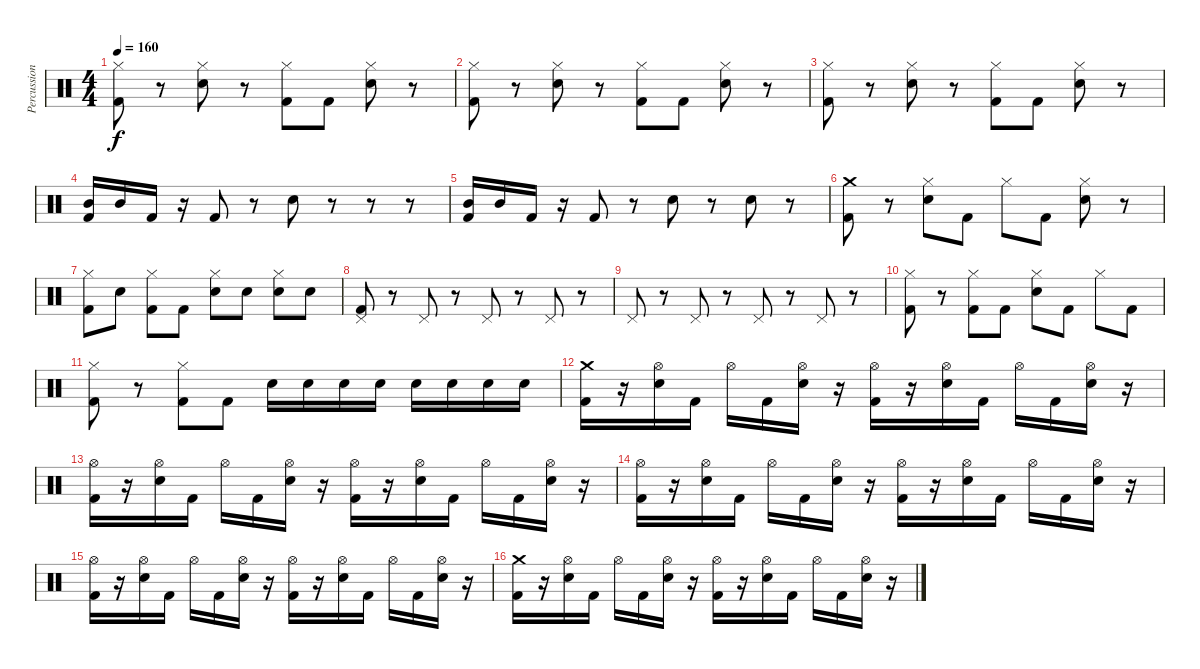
\track ("Percussion" "Percussion") {instrument percussion}
\staff {score}
\articulation defaults
\ts (4 4)
\tempo 160
\clef neutral
\ks c
("Hi-Hat (closed)" "Kick (hit) 2").8{dy f} r.8 ("Hi-Hat (closed)" "Snare (hit) 2").8 r.8 ("Hi-Hat (closed)" "Kick (hit) 2").8 "Kick (hit) 2".8 ("Hi-Hat (closed)" "Snare (hit) 2").8 r.8 |
("Hi-Hat (closed)" "Kick (hit) 2").8 r.8 ("Hi-Hat (closed)" "Snare (hit) 2").8 r.8 ("Hi-Hat (closed)" "Kick (hit) 2").8 "Kick (hit) 2".8 ("Hi-Hat (closed)" "Snare (hit) 2").8 r.8 |
("Hi-Hat (closed)" "Kick (hit) 2").8 r.8 ("Hi-Hat (closed)" "Snare (hit) 2").8 r.8 ("Hi-Hat (closed)" "Kick (hit) 2").8 "Kick (hit) 2".8 ("Hi-Hat (closed)" "Snare (hit) 2").8 r.8 |
("Kick (hit) 2" "Mid Tom (hit)").16 "Mid Tom (hit)".16 "Kick (hit) 2".16 r.16 "Kick (hit) 2".8 r.8 "Snare (hit) 2".8 r.8 r.8 r.8 |
("Kick (hit) 2" "Mid Tom (hit)").16 "Mid Tom (hit)".16 "Kick (hit) 2".16 r.16 "Kick (hit) 2".8 r.8 "Snare (hit) 2".8 r.8 "Snare (hit) 2".8 r.8 |
("Crash medium (hit)" "Kick (hit) 2").8 r.8 ("Hi-Hat (closed)" "Snare (hit) 2").8 "Kick (hit) 2".8 "Hi-Hat (closed)".8 "Kick (hit) 2".8 ("Hi-Hat (closed)" "Snare (hit) 2").8 r.8 |
("Hi-Hat (closed)" "Kick (hit) 2").8 "Snare (hit) 2".8 ("Hi-Hat (closed)" "Kick (hit) 2").8 "Kick (hit) 2".8 ("Hi-Hat (closed)" "Snare (hit) 2").8 "Snare (hit) 2".8 ("Hi-Hat (closed)" "Snare (hit) 2").8 "Snare (hit) 2".8 |
("Pedal Hi-Hat (hit)" "Kick (hit) 2").8 r.8 "Pedal Hi-Hat (hit)".8 r.8 "Pedal Hi-Hat (hit)".8 r.8 "Pedal Hi-Hat (hit)".8 r.8 |
"Pedal Hi-Hat (hit)".8 r.8 "Pedal Hi-Hat (hit)".8 r.8 "Pedal Hi-Hat (hit)".8 r.8 "Pedal Hi-Hat (hit)".8 r.8 |
("Hi-Hat (closed)" "Kick (hit) 2").8 r.8 ("Hi-Hat (closed)" "Kick (hit) 2").8 "Kick (hit) 2".8 ("Hi-Hat (closed)" "Snare (hit) 2").8 "Kick (hit) 2".8 "Hi-Hat (closed)".8 "Kick (hit) 2".8 |
("Hi-Hat (closed)" "Kick (hit) 2").8 r.8 ("Hi-Hat (closed)" "Kick (hit) 2").8 "Kick (hit) 2".8 "Snare (hit) 2".16 "Snare (hit) 2".16 "Snare (hit) 2".16 "Snare (hit) 2".16 "Snare (hit) 2".16 "Snare (hit) 2".16 "Snare (hit) 2".16 "Snare (hit) 2".16 |
("Crash medium (hit)" "Kick (hit) 2").16 r.16 ("Hi-Hat (open)" "Snare (hit) 2").16 "Kick (hit) 2".16 "Hi-Hat (open)".16 "Kick (hit) 2".16 ("Hi-Hat (open)" "Snare (hit) 2").16 r.16 ("Hi-Hat (open)" "Kick (hit) 2").16 r.16 ("Hi-Hat (open)" "Snare (hit) 2").16 "Kick (hit) 2".16 "Hi-Hat (open)".16 "Kick (hit) 2".16 ("Hi-Hat (open)" "Snare (hit) 2").16 r.16 |
("Hi-Hat (open)" "Kick (hit) 2").16 r.16 ("Hi-Hat (open)" "Snare (hit) 2").16 "Kick (hit) 2".16 "Hi-Hat (open)".16 "Kick (hit) 2".16 ("Hi-Hat (open)" "Snare (hit) 2").16 r.16 ("Hi-Hat (open)" "Kick (hit) 2").16 r.16 ("Hi-Hat (open)" "Snare (hit) 2").16 "Kick (hit) 2".16 "Hi-Hat (open)".16 "Kick (hit) 2".16 ("Hi-Hat (open)" "Snare (hit) 2").16 r.16 |
("Hi-Hat (open)" "Kick (hit) 2").16 r.16 ("Hi-Hat (open)" "Snare (hit) 2").16 "Kick (hit) 2".16 "Hi-Hat (open)".16 "Kick (hit) 2".16 ("Hi-Hat (open)" "Snare (hit) 2").16 r.16 ("Hi-Hat (open)" "Kick (hit) 2").16 r.16 ("Hi-Hat (open)" "Snare (hit) 2").16 "Kick (hit) 2".16 "Hi-Hat (open)".16 "Kick (hit) 2".16 ("Hi-Hat (open)" "Snare (hit) 2").16 r.16 |
("Hi-Hat (open)" "Kick (hit) 2").16 r.16 ("Hi-Hat (open)" "Snare (hit) 2").16 "Kick (hit) 2".16 "Hi-Hat (open)".16 "Kick (hit) 2".16 ("Hi-Hat (open)" "Snare (hit) 2").16 r.16 ("Hi-Hat (open)" "Kick (hit) 2").16 r.16 ("Hi-Hat (open)" "Snare (hit) 2").16 "Kick (hit) 2".16 "Hi-Hat (open)".16 "Kick (hit) 2".16 ("Hi-Hat (open)" "Snare (hit) 2").16 r.16 |
("Crash medium (hit)" "Kick (hit) 2").16 r.16 ("Hi-Hat (open)" "Snare (hit) 2").16 "Kick (hit) 2".16 "Hi-Hat (open)".16 "Kick (hit) 2".16 ("Hi-Hat (open)" "Snare (hit) 2").16 r.16 ("Hi-Hat (open)" "Kick (hit) 2").16 r.16 ("Hi-Hat (open)" "Snare (hit) 2").16 "Kick (hit) 2".16 "Hi-Hat (open)".16 "Kick (hit) 2".16 ("Hi-Hat (open)" "Snare (hit) 2").16 r.16
